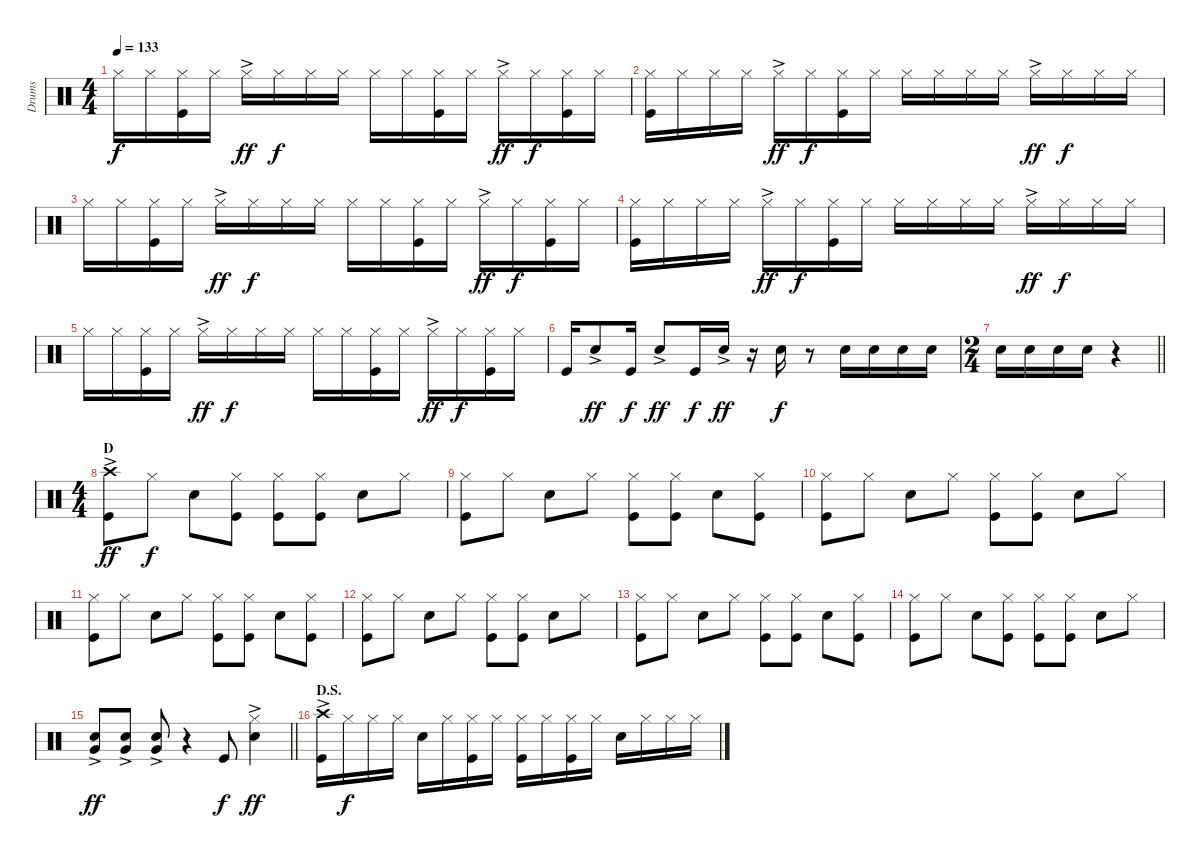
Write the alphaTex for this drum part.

\track ("Drums" "Drums") {instrument percussion}
\staff {score}
\articulation defaults
\ts (4 4)
\tempo 133
\clef neutral
\ks c "Hi-Hat (closed)".16{dy f} "Hi-Hat (closed)".16
("Hi-Hat (closed)" "Kick (hit)").16 "Hi-Hat (closed)".16 "Hi-Hat (closed)"{ac}.16{dy ff} "Hi-Hat (closed)".16{dy f} "Hi-Hat (closed)".16 "Hi-Hat (closed)".16 "Hi-Hat (closed)".16 "Hi-Hat (closed)".16 ("Hi-Hat (closed)" "Kick (hit)").16 "Hi-Hat (closed)".16 "Hi-Hat (closed)"{ac}.16{dy ff} "Hi-Hat (closed)".16{dy f} ("Hi-Hat (closed)" "Kick (hit)").16 "Hi-Hat (closed)".16 |
("Hi-Hat (closed)" "Kick (hit)").16 "Hi-Hat (closed)".16 "Hi-Hat (closed)".16 "Hi-Hat (closed)".16 "Hi-Hat (closed)"{ac}.16{dy ff} "Hi-Hat (closed)".16{dy f} ("Hi-Hat (closed)" "Kick (hit)").16 "Hi-Hat (closed)".16 "Hi-Hat (closed)".16 "Hi-Hat (closed)".16 "Hi-Hat (closed)".16 "Hi-Hat (closed)".16 "Hi-Hat (closed)"{ac}.16{dy ff} "Hi-Hat (closed)".16{dy f} "Hi-Hat (closed)".16 "Hi-Hat (closed)".16 |
"Hi-Hat (closed)".16 "Hi-Hat (closed)".16 ("Hi-Hat (closed)" "Kick (hit)").16 "Hi-Hat (closed)".16 "Hi-Hat (closed)"{ac}.16{dy ff} "Hi-Hat (closed)".16{dy f} "Hi-Hat (closed)".16 "Hi-Hat (closed)".16 "Hi-Hat (closed)".16 "Hi-Hat (closed)".16 ("Hi-Hat (closed)" "Kick (hit)").16 "Hi-Hat (closed)".16 "Hi-Hat (closed)"{ac}.16{dy ff} "Hi-Hat (closed)".16{dy f} ("Hi-Hat (closed)" "Kick (hit)").16 "Hi-Hat (closed)".16 |
("Hi-Hat (closed)" "Kick (hit)").16 "Hi-Hat (closed)".16 "Hi-Hat (closed)".16 "Hi-Hat (closed)".16 "Hi-Hat (closed)"{ac}.16{dy ff} "Hi-Hat (closed)".16{dy f} ("Hi-Hat (closed)" "Kick (hit)").16 "Hi-Hat (closed)".16 "Hi-Hat (closed)".16 "Hi-Hat (closed)".16 "Hi-Hat (closed)".16 "Hi-Hat (closed)".16 "Hi-Hat (closed)"{ac}.16{dy ff} "Hi-Hat (closed)".16{dy f} "Hi-Hat (closed)".16 "Hi-Hat (closed)".16 |
"Hi-Hat (closed)".16 "Hi-Hat (closed)".16 ("Hi-Hat (closed)" "Kick (hit)").16 "Hi-Hat (closed)".16 "Hi-Hat (closed)"{ac}.16{dy ff} "Hi-Hat (closed)".16{dy f} "Hi-Hat (closed)".16 "Hi-Hat (closed)".16 "Hi-Hat (closed)".16 "Hi-Hat (closed)".16 ("Hi-Hat (closed)" "Kick (hit)").16 "Hi-Hat (closed)".16 "Hi-Hat (closed)"{ac}.16{dy ff} "Hi-Hat (closed)".16{dy f} ("Hi-Hat (closed)" "Kick (hit)").16 "Hi-Hat (closed)".16 |
"Kick (hit)".16 "Snare (hit) 2"{ac}.8{dy ff} "Kick (hit)".16{dy f} "Snare (hit) 2"{ac}.8{dy ff} "Kick (hit)".16{dy f} "Snare (hit) 2"{ac}.16{dy ff} r.16 "Snare (hit) 2".16{dy f} r.8 "Snare (hit) 2".16 "Snare (hit) 2".16 "Snare (hit) 2".16 "Snare (hit) 2".16 |
\ts (2 4)
\barLineRight lightlight "Snare (hit) 2".16 "Snare (hit) 2".16 "Snare (hit) 2".16 "Snare (hit) 2".16
r.4 |
\ts (4 4)
\section ("" "D")
("Crash high (hit)"{ac} "Kick (hit)").8{dy ff} "Hi-Hat (closed)".8{dy f} "Snare (hit) 2".8 ("Hi-Hat (closed)" "Kick (hit)").8 ("Hi-Hat (closed)" "Kick (hit)").8 ("Kick (hit)" "Hi-Hat (closed)").8 "Snare (hit) 2".8 "Hi-Hat (closed)".8 |
("Hi-Hat (closed)" "Kick (hit)").8 "Hi-Hat (closed)".8 "Snare (hit) 2".8 "Hi-Hat (closed)".8 ("Hi-Hat (closed)" "Kick (hit)").8 ("Kick (hit)" "Hi-Hat (closed)").8 "Snare (hit) 2".8 ("Hi-Hat (closed)" "Kick (hit)").8 |
("Hi-Hat (closed)" "Kick (hit)").8 "Hi-Hat (closed)".8 "Snare (hit) 2".8 "Hi-Hat (closed)".8 ("Hi-Hat (closed)" "Kick (hit)").8 ("Kick (hit)" "Hi-Hat (closed)").8 "Snare (hit) 2".8 "Hi-Hat (closed)".8 |
("Hi-Hat (closed)" "Kick (hit)").8 "Hi-Hat (closed)".8 "Snare (hit) 2".8 "Hi-Hat (closed)".8 ("Hi-Hat (closed)" "Kick (hit)").8 ("Kick (hit)" "Hi-Hat (closed)").8 "Snare (hit) 2".8 ("Hi-Hat (closed)" "Kick (hit)").8 |
("Hi-Hat (closed)" "Kick (hit)").8 "Hi-Hat (closed)".8 "Snare (hit) 2".8 "Hi-Hat (closed)".8 ("Hi-Hat (closed)" "Kick (hit)").8 ("Kick (hit)" "Hi-Hat (closed)").8 "Snare (hit) 2".8 "Hi-Hat (closed)".8 |
("Hi-Hat (closed)" "Kick (hit)").8 "Hi-Hat (closed)".8 "Snare (hit) 2".8 "Hi-Hat (closed)".8 ("Hi-Hat (closed)" "Kick (hit)").8 ("Kick (hit)" "Hi-Hat (closed)").8 "Snare (hit) 2".8 ("Hi-Hat (closed)" "Kick (hit)").8 |
("Hi-Hat (closed)" "Kick (hit)").8 "Hi-Hat (closed)".8 "Snare (hit) 2".8 ("Hi-Hat (closed)" "Kick (hit)").8 ("Kick (hit)" "Hi-Hat (closed)").8 ("Hi-Hat (closed)" "Kick (hit)").8 "Snare (hit) 2".8 "Hi-Hat (closed)".8 |
\barLineRight lightlight
("Snare (hit) 2"{ac} "Very Low Tom (hit)"{ac}).8{dy ff} ("Snare (hit) 2"{ac} "Very Low Tom (hit)"{ac}).8 ("Snare (hit) 2"{ac} "Very Low Tom (hit)"{ac}).8 r.4 "Kick (hit)".8{dy f} ("Hi-Hat (closed)"{ac} "Snare (hit) 2"{ac}).4{dy ff} |
\section ("" "D.S.")
("Crash high (hit)"{ac} "Kick (hit)").16 "Hi-Hat (closed)".16{dy f} "Hi-Hat (closed)".16 "Hi-Hat (closed)".16 "Snare (hit) 2".16 "Hi-Hat (closed)".16 ("Hi-Hat (closed)" "Kick (hit)").16 "Hi-Hat (closed)".16 ("Hi-Hat (closed)" "Kick (hit)").16 "Hi-Hat (closed)".16 ("Hi-Hat (closed)" "Kick (hit)").16 "Hi-Hat (closed)".16 "Snare (hit) 2".16 "Hi-Hat (closed)".16 "Hi-Hat (closed)".16 "Hi-Hat (closed)".16
